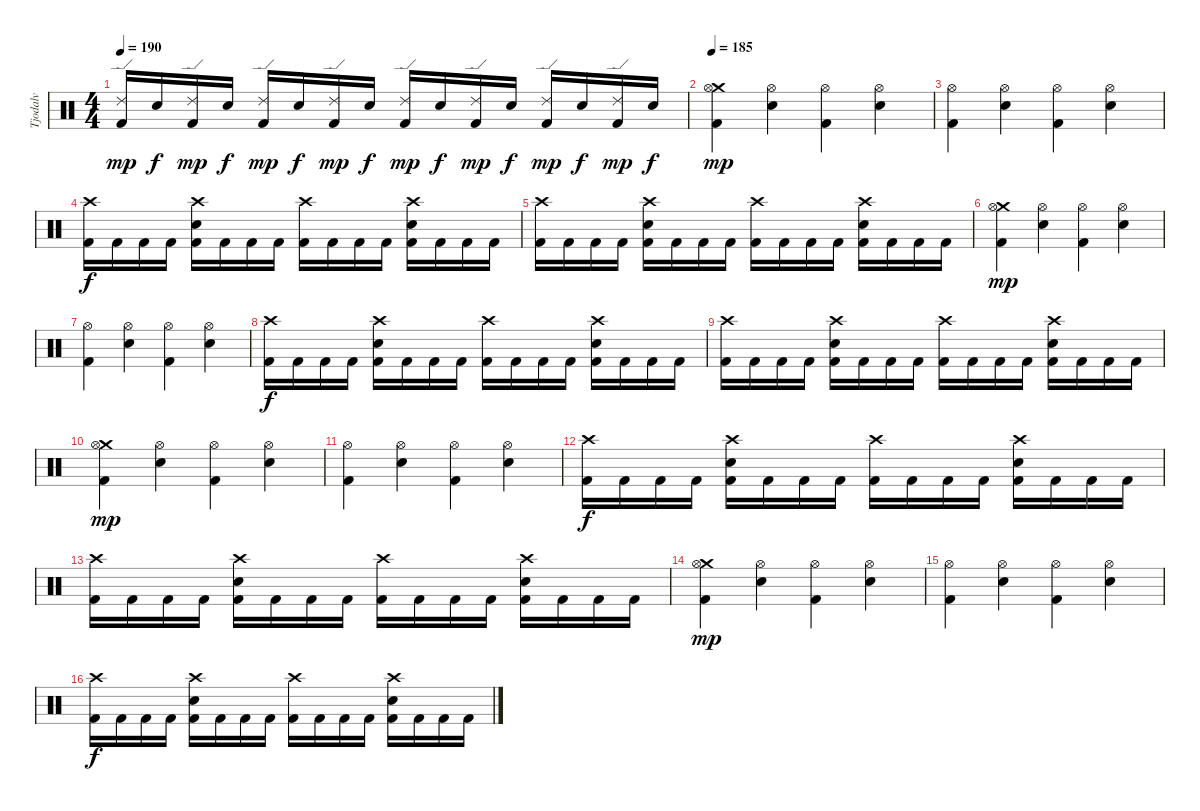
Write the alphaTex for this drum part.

\track ("Tjodalv" "Tjodalv") {instrument percussion}
\staff {score}
\articulation defaults
\ts (4 4)
\tempo 190
\clef neutral
\ks c
("Ride (edge) 2" "Kick (hit) 2").16{dy mp} "Electric Snare (hit)".16{dy f} ("Ride (edge) 2" "Kick (hit) 2").16{dy mp} "Electric Snare (hit)".16{dy f} ("Ride (edge) 2" "Kick (hit) 2").16{dy mp} "Electric Snare (hit)".16{dy f} ("Ride (edge) 2" "Kick (hit) 2").16{dy mp} "Electric Snare (hit)".16{dy f} ("Ride (edge) 2" "Kick (hit) 2").16{dy mp} "Electric Snare (hit)".16{dy f} ("Ride (edge) 2" "Kick (hit) 2").16{dy mp} "Electric Snare (hit)".16{dy f} ("Ride (edge) 2" "Kick (hit) 2").16{dy mp} "Electric Snare (hit)".16{dy f} ("Ride (edge) 2" "Kick (hit) 2").16{dy mp} "Electric Snare (hit)".16{dy f} |
\tempo 185
("Crash medium (hit)" "Hi-Hat (open)" "Kick (hit) 2").4{dy mp} ("Hi-Hat (open)" "Electric Snare (hit)").4 ("Hi-Hat (open)" "Kick (hit) 2").4 ("Hi-Hat (open)" "Electric Snare (hit)").4 |
("Hi-Hat (open)" "Kick (hit) 2").4 ("Hi-Hat (open)" "Electric Snare (hit)").4 ("Hi-Hat (open)" "Kick (hit) 2").4 ("Hi-Hat (open)" "Electric Snare (hit)").4 |
("Crash high (hit)" "Kick (hit) 2").16{dy f} "Kick (hit) 2".16 "Kick (hit) 2".16 "Kick (hit) 2".16 ("Crash high (hit)" "Electric Snare (hit)" "Kick (hit) 2").16 "Kick (hit) 2".16 "Kick (hit) 2".16 "Kick (hit) 2".16 ("Crash high (hit)" "Kick (hit) 2").16 "Kick (hit) 2".16 "Kick (hit) 2".16 "Kick (hit) 2".16 ("Crash high (hit)" "Electric Snare (hit)" "Kick (hit) 2").16 "Kick (hit) 2".16 "Kick (hit) 2".16 "Kick (hit) 2".16 |
("Crash high (hit)" "Kick (hit) 2").16 "Kick (hit) 2".16 "Kick (hit) 2".16 "Kick (hit) 2".16 ("Crash high (hit)" "Electric Snare (hit)" "Kick (hit) 2").16 "Kick (hit) 2".16 "Kick (hit) 2".16 "Kick (hit) 2".16 ("Crash high (hit)" "Kick (hit) 2").16 "Kick (hit) 2".16 "Kick (hit) 2".16 "Kick (hit) 2".16 ("Crash high (hit)" "Electric Snare (hit)" "Kick (hit) 2").16 "Kick (hit) 2".16 "Kick (hit) 2".16 "Kick (hit) 2".16 |
("Crash medium (hit)" "Hi-Hat (open)" "Kick (hit) 2").4{dy mp} ("Hi-Hat (open)" "Electric Snare (hit)").4 ("Hi-Hat (open)" "Kick (hit) 2").4 ("Hi-Hat (open)" "Electric Snare (hit)").4 |
("Hi-Hat (open)" "Kick (hit) 2").4 ("Hi-Hat (open)" "Electric Snare (hit)").4 ("Hi-Hat (open)" "Kick (hit) 2").4 ("Hi-Hat (open)" "Electric Snare (hit)").4 |
("Crash high (hit)" "Kick (hit) 2").16{dy f} "Kick (hit) 2".16 "Kick (hit) 2".16 "Kick (hit) 2".16 ("Crash high (hit)" "Electric Snare (hit)" "Kick (hit) 2").16 "Kick (hit) 2".16 "Kick (hit) 2".16 "Kick (hit) 2".16 ("Crash high (hit)" "Kick (hit) 2").16 "Kick (hit) 2".16 "Kick (hit) 2".16 "Kick (hit) 2".16 ("Crash high (hit)" "Electric Snare (hit)" "Kick (hit) 2").16 "Kick (hit) 2".16 "Kick (hit) 2".16 "Kick (hit) 2".16 |
("Crash high (hit)" "Kick (hit) 2").16 "Kick (hit) 2".16 "Kick (hit) 2".16 "Kick (hit) 2".16 ("Crash high (hit)" "Electric Snare (hit)" "Kick (hit) 2").16 "Kick (hit) 2".16 "Kick (hit) 2".16 "Kick (hit) 2".16 ("Crash high (hit)" "Kick (hit) 2").16 "Kick (hit) 2".16 "Kick (hit) 2".16 "Kick (hit) 2".16 ("Crash high (hit)" "Electric Snare (hit)" "Kick (hit) 2").16 "Kick (hit) 2".16 "Kick (hit) 2".16 "Kick (hit) 2".16 |
("Crash medium (hit)" "Hi-Hat (open)" "Kick (hit) 2").4{dy mp} ("Hi-Hat (open)" "Electric Snare (hit)").4 ("Hi-Hat (open)" "Kick (hit) 2").4 ("Hi-Hat (open)" "Electric Snare (hit)").4 |
("Hi-Hat (open)" "Kick (hit) 2").4 ("Hi-Hat (open)" "Electric Snare (hit)").4 ("Hi-Hat (open)" "Kick (hit) 2").4 ("Hi-Hat (open)" "Electric Snare (hit)").4 |
("Crash high (hit)" "Kick (hit) 2").16{dy f} "Kick (hit) 2".16 "Kick (hit) 2".16 "Kick (hit) 2".16 ("Crash high (hit)" "Electric Snare (hit)" "Kick (hit) 2").16 "Kick (hit) 2".16 "Kick (hit) 2".16 "Kick (hit) 2".16 ("Crash high (hit)" "Kick (hit) 2").16 "Kick (hit) 2".16 "Kick (hit) 2".16 "Kick (hit) 2".16 ("Crash high (hit)" "Electric Snare (hit)" "Kick (hit) 2").16 "Kick (hit) 2".16 "Kick (hit) 2".16 "Kick (hit) 2".16 |
("Crash high (hit)" "Kick (hit) 2").16 "Kick (hit) 2".16 "Kick (hit) 2".16 "Kick (hit) 2".16 ("Crash high (hit)" "Electric Snare (hit)" "Kick (hit) 2").16 "Kick (hit) 2".16 "Kick (hit) 2".16 "Kick (hit) 2".16 ("Crash high (hit)" "Kick (hit) 2").16 "Kick (hit) 2".16 "Kick (hit) 2".16 "Kick (hit) 2".16 ("Crash high (hit)" "Electric Snare (hit)" "Kick (hit) 2").16 "Kick (hit) 2".16 "Kick (hit) 2".16 "Kick (hit) 2".16 |
("Crash medium (hit)" "Hi-Hat (open)" "Kick (hit) 2").4{dy mp} ("Hi-Hat (open)" "Electric Snare (hit)").4 ("Hi-Hat (open)" "Kick (hit) 2").4 ("Hi-Hat (open)" "Electric Snare (hit)").4 |
("Hi-Hat (open)" "Kick (hit) 2").4 ("Hi-Hat (open)" "Electric Snare (hit)").4 ("Hi-Hat (open)" "Kick (hit) 2").4 ("Hi-Hat (open)" "Electric Snare (hit)").4 |
("Crash high (hit)" "Kick (hit) 2").16{dy f} "Kick (hit) 2".16 "Kick (hit) 2".16 "Kick (hit) 2".16 ("Crash high (hit)" "Electric Snare (hit)" "Kick (hit) 2").16 "Kick (hit) 2".16 "Kick (hit) 2".16 "Kick (hit) 2".16 ("Crash high (hit)" "Kick (hit) 2").16 "Kick (hit) 2".16 "Kick (hit) 2".16 "Kick (hit) 2".16 ("Crash high (hit)" "Electric Snare (hit)" "Kick (hit) 2").16 "Kick (hit) 2".16 "Kick (hit) 2".16 "Kick (hit) 2".16
